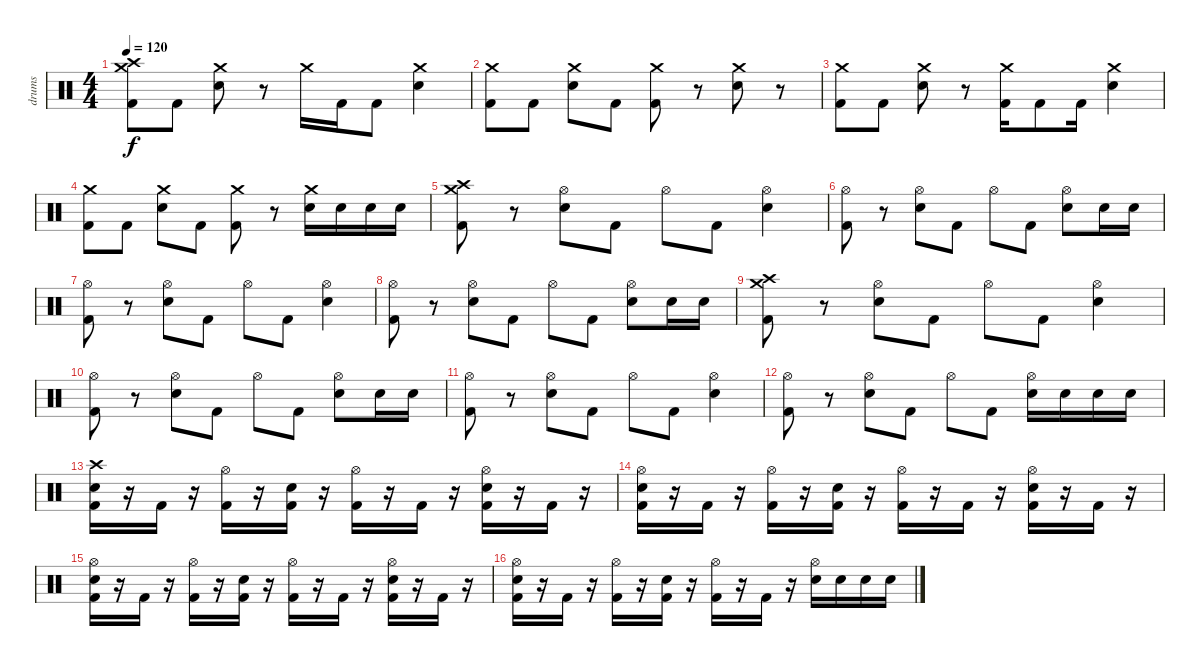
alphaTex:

\track ("drums" "drums") {instrument percussion}
\staff {score}
\articulation defaults
\ts (4 4)
\tempo 120
\clef neutral
\ks c
("Crash medium (hit)" "Crash high (hit)" "Kick (hit) 2").8{dy f} "Kick (hit) 2".8 ("Crash medium (hit)" "Electric Snare (hit)").8 r.8 "Crash medium (hit)".16 "Kick (hit) 2".16 "Kick (hit) 2".8 ("Crash medium (hit)" "Electric Snare (hit)").4 |
("Crash medium (hit)" "Kick (hit) 2").8 "Kick (hit) 2".8 ("Crash medium (hit)" "Electric Snare (hit)").8 "Kick (hit) 2".8 ("Crash medium (hit)" "Kick (hit) 2").8 r.8 ("Crash medium (hit)" "Electric Snare (hit)").8 r.8 |
("Crash medium (hit)" "Kick (hit) 2").8 "Kick (hit) 2".8 ("Crash medium (hit)" "Electric Snare (hit)").8 r.8 ("Crash medium (hit)" "Kick (hit) 2").16 "Kick (hit) 2".8 "Kick (hit) 2".16 ("Crash medium (hit)" "Electric Snare (hit)").4 |
("Crash medium (hit)" "Kick (hit) 2").8 "Kick (hit) 2".8 ("Crash medium (hit)" "Electric Snare (hit)").8 "Kick (hit) 2".8 ("Crash medium (hit)" "Kick (hit) 2").8 r.8 ("Crash medium (hit)" "Electric Snare (hit)").16 "Electric Snare (hit)".16 "Electric Snare (hit)".16 "Electric Snare (hit)".16 |
("Crash medium (hit)" "Crash high (hit)" "Kick (hit) 2").8 r.8 ("Hi-Hat (open)" "Electric Snare (hit)").8 "Kick (hit) 2".8 "Hi-Hat (open)".8 "Kick (hit) 2".8 ("Hi-Hat (open)" "Electric Snare (hit)").4 |
("Hi-Hat (open)" "Kick (hit) 2").8 r.8 ("Hi-Hat (open)" "Electric Snare (hit)").8 "Kick (hit) 2".8 "Hi-Hat (open)".8 "Kick (hit) 2".8 ("Hi-Hat (open)" "Electric Snare (hit)").8 "Electric Snare (hit)".16 "Electric Snare (hit)".16 |
("Hi-Hat (open)" "Kick (hit) 2").8 r.8 ("Hi-Hat (open)" "Electric Snare (hit)").8 "Kick (hit) 2".8 "Hi-Hat (open)".8 "Kick (hit) 2".8 ("Hi-Hat (open)" "Electric Snare (hit)").4 |
("Hi-Hat (open)" "Kick (hit) 2").8 r.8 ("Hi-Hat (open)" "Electric Snare (hit)").8 "Kick (hit) 2".8 "Hi-Hat (open)".8 "Kick (hit) 2".8 ("Hi-Hat (open)" "Electric Snare (hit)").8 "Electric Snare (hit)".16 "Electric Snare (hit)".16 |
("Crash medium (hit)" "Crash high (hit)" "Kick (hit) 2").8 r.8 ("Hi-Hat (open)" "Electric Snare (hit)").8 "Kick (hit) 2".8 "Hi-Hat (open)".8 "Kick (hit) 2".8 ("Hi-Hat (open)" "Electric Snare (hit)").4 |
("Hi-Hat (open)" "Kick (hit) 2").8 r.8 ("Hi-Hat (open)" "Electric Snare (hit)").8 "Kick (hit) 2".8 "Hi-Hat (open)".8 "Kick (hit) 2".8 ("Hi-Hat (open)" "Electric Snare (hit)").8 "Electric Snare (hit)".16 "Electric Snare (hit)".16 |
("Hi-Hat (open)" "Kick (hit) 2").8 r.8 ("Hi-Hat (open)" "Electric Snare (hit)").8 "Kick (hit) 2".8 "Hi-Hat (open)".8 "Kick (hit) 2".8 ("Hi-Hat (open)" "Electric Snare (hit)").4 |
("Hi-Hat (open)" "Kick (hit) 2").8 r.8 ("Hi-Hat (open)" "Electric Snare (hit)").8 "Kick (hit) 2".8 "Hi-Hat (open)".8 "Kick (hit) 2".8 ("Hi-Hat (open)" "Electric Snare (hit)").16 "Electric Snare (hit)".16 "Electric Snare (hit)".16 "Electric Snare (hit)".16 |
("Kick (hit) 2" "Electric Snare (hit)" "Crash high (hit)").16 r.16 "Kick (hit) 2".16 r.16 ("Kick (hit) 2" "Hi-Hat (open)").16 r.16 ("Kick (hit) 2" "Electric Snare (hit)").16 r.16 ("Kick (hit) 2" "Hi-Hat (open)").16 r.16 "Kick (hit) 2".16 r.16 ("Kick (hit) 2" "Electric Snare (hit)" "Hi-Hat (open)").16 r.16 "Kick (hit) 2".16 r.16 |
("Kick (hit) 2" "Electric Snare (hit)" "Hi-Hat (open)").16 r.16 "Kick (hit) 2".16 r.16 ("Kick (hit) 2" "Hi-Hat (open)").16 r.16 ("Kick (hit) 2" "Electric Snare (hit)").16 r.16 ("Kick (hit) 2" "Hi-Hat (open)").16 r.16 "Kick (hit) 2".16 r.16 ("Kick (hit) 2" "Electric Snare (hit)" "Hi-Hat (open)").16 r.16 "Kick (hit) 2".16 r.16 |
("Kick (hit) 2" "Electric Snare (hit)" "Hi-Hat (open)").16 r.16 "Kick (hit) 2".16 r.16 ("Kick (hit) 2" "Hi-Hat (open)").16 r.16 ("Kick (hit) 2" "Electric Snare (hit)").16 r.16 ("Kick (hit) 2" "Hi-Hat (open)").16 r.16 "Kick (hit) 2".16 r.16 ("Kick (hit) 2" "Electric Snare (hit)" "Hi-Hat (open)").16 r.16 "Kick (hit) 2".16 r.16 |
("Kick (hit) 2" "Electric Snare (hit)" "Hi-Hat (open)").16 r.16 "Kick (hit) 2".16 r.16 ("Kick (hit) 2" "Hi-Hat (open)").16 r.16 ("Kick (hit) 2" "Electric Snare (hit)").16 r.16 ("Kick (hit) 2" "Hi-Hat (open)").16 r.16 "Kick (hit) 2".16 r.16 ("Electric Snare (hit)" "Hi-Hat (open)").16 "Electric Snare (hit)".16 "Electric Snare (hit)".16 "Electric Snare (hit)".16
